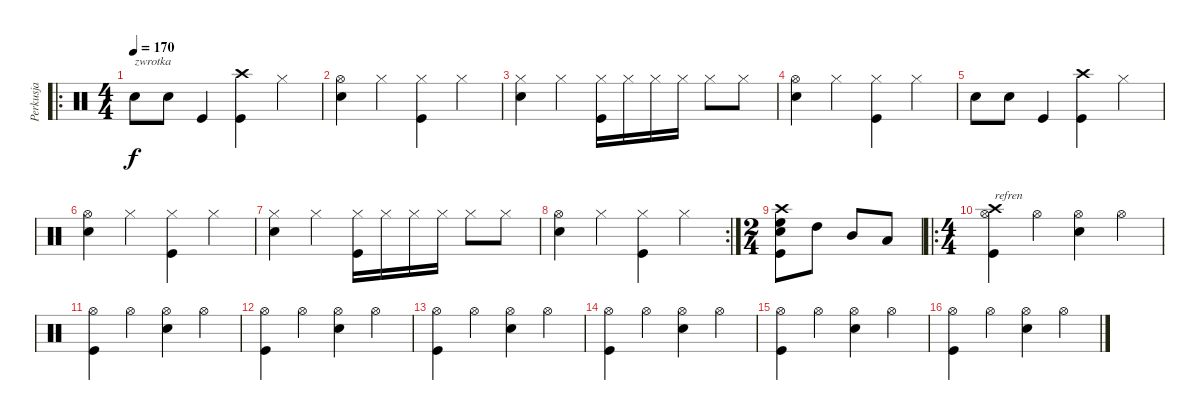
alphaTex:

\track ("Perkusja" "Perkusja") {instrument percussion}
\staff {score}
\articulation defaults
\ro
\ts (4 4)
\tempo 170
\clef neutral
\ks c "Electric Snare (hit)".8{txt "zwrotka" dy f} "Electric Snare (hit)".8 "Kick (hit)".4
("Crash high (hit)" "Kick (hit)").4 "Hi-Hat (closed)".4 |
("Hi-Hat (open)" "Electric Snare (hit)").4 "Hi-Hat (closed)".4 ("Hi-Hat (closed)" "Kick (hit)").4 "Hi-Hat (closed)".4 |
("Hi-Hat (closed)" "Electric Snare (hit)").4 "Hi-Hat (closed)".4 ("Hi-Hat (closed)" "Kick (hit)").16 "Hi-Hat (closed)".16 "Hi-Hat (closed)".16 "Hi-Hat (closed)".16 "Hi-Hat (closed)".8 "Hi-Hat (closed)".8 |
("Hi-Hat (open)" "Electric Snare (hit)").4 "Hi-Hat (closed)".4 ("Hi-Hat (closed)" "Kick (hit)").4 "Hi-Hat (closed)".4 |
"Electric Snare (hit)".8 "Electric Snare (hit)".8 "Kick (hit)".4 ("Crash high (hit)" "Kick (hit)").4 "Hi-Hat (closed)".4 |
("Hi-Hat (open)" "Electric Snare (hit)").4 "Hi-Hat (closed)".4 ("Hi-Hat (closed)" "Kick (hit)").4 "Hi-Hat (closed)".4 |
("Hi-Hat (closed)" "Electric Snare (hit)").4 "Hi-Hat (closed)".4 ("Hi-Hat (closed)" "Kick (hit)").16 "Hi-Hat (closed)".16 "Hi-Hat (closed)".16 "Hi-Hat (closed)".16 "Hi-Hat (closed)".8 "Hi-Hat (closed)".8 |
\rc 2
("Hi-Hat (open)" "Electric Snare (hit)").4 "Hi-Hat (closed)".4 ("Hi-Hat (closed)" "Kick (hit)").4 "Hi-Hat (closed)".4 |
\ts (2 4)
("Crash high (hit)" "High Floor Tom (hit)" "Electric Snare (hit)" "Kick (hit)").8 "High Tom (hit)".8 "Mid Tom (hit)".8 "Low Tom (hit)".8 |
\ro
\ts (4 4)
("Hi-Hat (open)" "Crash high (hit)" "Kick (hit)").4{txt "refren"} "Hi-Hat (open)".4 ("Hi-Hat (open)" "Electric Snare (hit)").4 "Hi-Hat (open)".4 |
("Hi-Hat (open)" "Kick (hit)").4 "Hi-Hat (open)".4 ("Hi-Hat (open)" "Electric Snare (hit)").4 "Hi-Hat (open)".4 |
("Hi-Hat (open)" "Kick (hit)").4 "Hi-Hat (open)".4 ("Hi-Hat (open)" "Electric Snare (hit)").4 "Hi-Hat (open)".4 |
("Hi-Hat (open)" "Kick (hit)").4 "Hi-Hat (open)".4 ("Hi-Hat (open)" "Electric Snare (hit)").4 "Hi-Hat (open)".4 |
("Hi-Hat (open)" "Kick (hit)").4 "Hi-Hat (open)".4 ("Hi-Hat (open)" "Electric Snare (hit)").4 "Hi-Hat (open)".4 |
("Hi-Hat (open)" "Kick (hit)").4 "Hi-Hat (open)".4 ("Hi-Hat (open)" "Electric Snare (hit)").4 "Hi-Hat (open)".4 |
("Hi-Hat (open)" "Kick (hit)").4 "Hi-Hat (open)".4 ("Hi-Hat (open)" "Electric Snare (hit)").4 "Hi-Hat (open)".4
